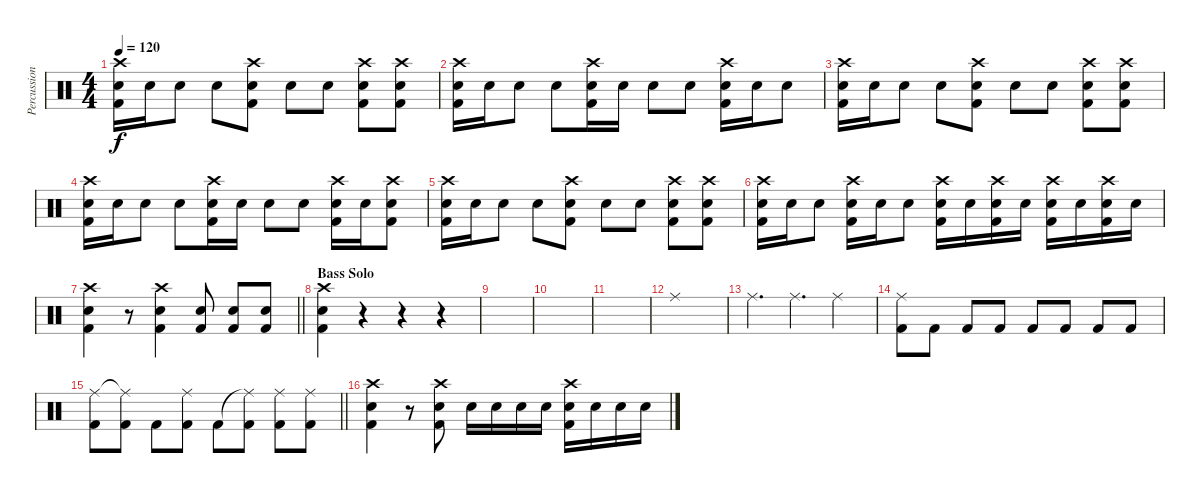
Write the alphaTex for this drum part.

\track ("Percussion" "Percussion") {instrument percussion}
\staff {score}
\articulation defaults
\ts (4 4)
\tempo 120
\clef neutral
\ks c
("Crash high (hit)" "Electric Snare (hit)" "Kick (hit) 2").16{dy f} "Electric Snare (hit)".16 "Electric Snare (hit)".8 "Electric Snare (hit)".8 ("Crash high (hit)" "Electric Snare (hit)" "Kick (hit) 2").8 "Electric Snare (hit)".8 "Electric Snare (hit)".8 ("Crash high (hit)" "Electric Snare (hit)" "Kick (hit) 2").8 ("Crash high (hit)" "Electric Snare (hit)" "Kick (hit) 2").8 |
("Crash high (hit)" "Electric Snare (hit)" "Kick (hit) 2").16 "Electric Snare (hit)".16 "Electric Snare (hit)".8 "Electric Snare (hit)".8 ("Crash high (hit)" "Electric Snare (hit)" "Kick (hit) 2").16 "Electric Snare (hit)".16 "Electric Snare (hit)".8 "Electric Snare (hit)".8 ("Crash high (hit)" "Electric Snare (hit)" "Kick (hit) 2").16 "Electric Snare (hit)".16 "Electric Snare (hit)".8 |
("Crash high (hit)" "Electric Snare (hit)" "Kick (hit) 2").16 "Electric Snare (hit)".16 "Electric Snare (hit)".8 "Electric Snare (hit)".8 ("Crash high (hit)" "Electric Snare (hit)" "Kick (hit) 2").8 "Electric Snare (hit)".8 "Electric Snare (hit)".8 ("Crash high (hit)" "Electric Snare (hit)" "Kick (hit) 2").8 ("Crash high (hit)" "Electric Snare (hit)" "Kick (hit) 2").8 |
("Crash high (hit)" "Electric Snare (hit)" "Kick (hit) 2").16 "Electric Snare (hit)".16 "Electric Snare (hit)".8 "Electric Snare (hit)".8 ("Crash high (hit)" "Electric Snare (hit)" "Kick (hit) 2").16 "Electric Snare (hit)".16 "Electric Snare (hit)".8 "Electric Snare (hit)".8 ("Crash high (hit)" "Electric Snare (hit)" "Kick (hit) 2").16 "Electric Snare (hit)".16 ("Crash high (hit)" "Electric Snare (hit)" "Kick (hit) 2").8 |
("Crash high (hit)" "Electric Snare (hit)" "Kick (hit) 2").16 "Electric Snare (hit)".16 "Electric Snare (hit)".8 "Electric Snare (hit)".8 ("Crash high (hit)" "Electric Snare (hit)" "Kick (hit) 2").8 "Electric Snare (hit)".8 "Electric Snare (hit)".8 ("Crash high (hit)" "Electric Snare (hit)" "Kick (hit) 2").8 ("Crash high (hit)" "Electric Snare (hit)" "Kick (hit) 2").8 |
("Crash high (hit)" "Electric Snare (hit)" "Kick (hit) 2").16 "Electric Snare (hit)".16 "Electric Snare (hit)".8 ("Crash high (hit)" "Electric Snare (hit)" "Kick (hit) 2").16 "Electric Snare (hit)".16 "Electric Snare (hit)".8 ("Crash high (hit)" "Electric Snare (hit)" "Kick (hit) 2").16 "Electric Snare (hit)".16 ("Crash high (hit)" "Electric Snare (hit)" "Kick (hit) 2").16 "Electric Snare (hit)".16 ("Crash high (hit)" "Electric Snare (hit)" "Kick (hit) 2").16 "Electric Snare (hit)".16 ("Crash high (hit)" "Electric Snare (hit)" "Kick (hit) 2").16 "Electric Snare (hit)".16 |
\barLineRight lightlight
("Crash high (hit)" "Electric Snare (hit)" "Kick (hit) 2").4 r.8 ("Crash high (hit)" "Electric Snare (hit)" "Kick (hit) 2").4 ("Electric Snare (hit)" "Kick (hit) 2").8 ("Electric Snare (hit)" "Kick (hit) 2").8 ("Electric Snare (hit)" "Kick (hit) 2").8 |
\section ("" "Bass Solo")
("Kick (hit) 2" "Electric Snare (hit)" "Crash high (hit)").4 r.4 r.4 r.4 |
|
|
|
"Ride (middle)".1 |
"Ride (middle)".4{d} "Ride (middle)".4{d} "Ride (middle)".4 |
("Ride (middle)" "Kick (hit) 2").8 "Kick (hit) 2".8 "Kick (hit) 2".8 "Kick (hit) 2".8 "Kick (hit) 2".8 "Kick (hit) 2".8 "Kick (hit) 2".8 "Kick (hit) 2".8 |
\barLineRight lightlight
("Ride (middle)" "Kick (hit) 2").8 ("Ride (middle)"{t} "Kick (hit) 2").8 "Kick (hit) 2".8 ("Ride (middle)" "Kick (hit) 2").8 "Kick (hit) 2".8 ("Ride (middle)"{t} "Kick (hit) 2").8 ("Ride (middle)" "Kick (hit) 2").8 ("Ride (middle)" "Kick (hit) 2").8 |
("Crash high (hit)" "Electric Snare (hit)" "Kick (hit) 2").4 r.8 ("Crash high (hit)" "Electric Snare (hit)" "Kick (hit) 2").8 "Electric Snare (hit)".16 "Electric Snare (hit)".16 "Electric Snare (hit)".16 "Electric Snare (hit)".16 ("Crash high (hit)" "Electric Snare (hit)" "Kick (hit) 2").16 "Electric Snare (hit)".16 "Electric Snare (hit)".16 "Electric Snare (hit)".16
